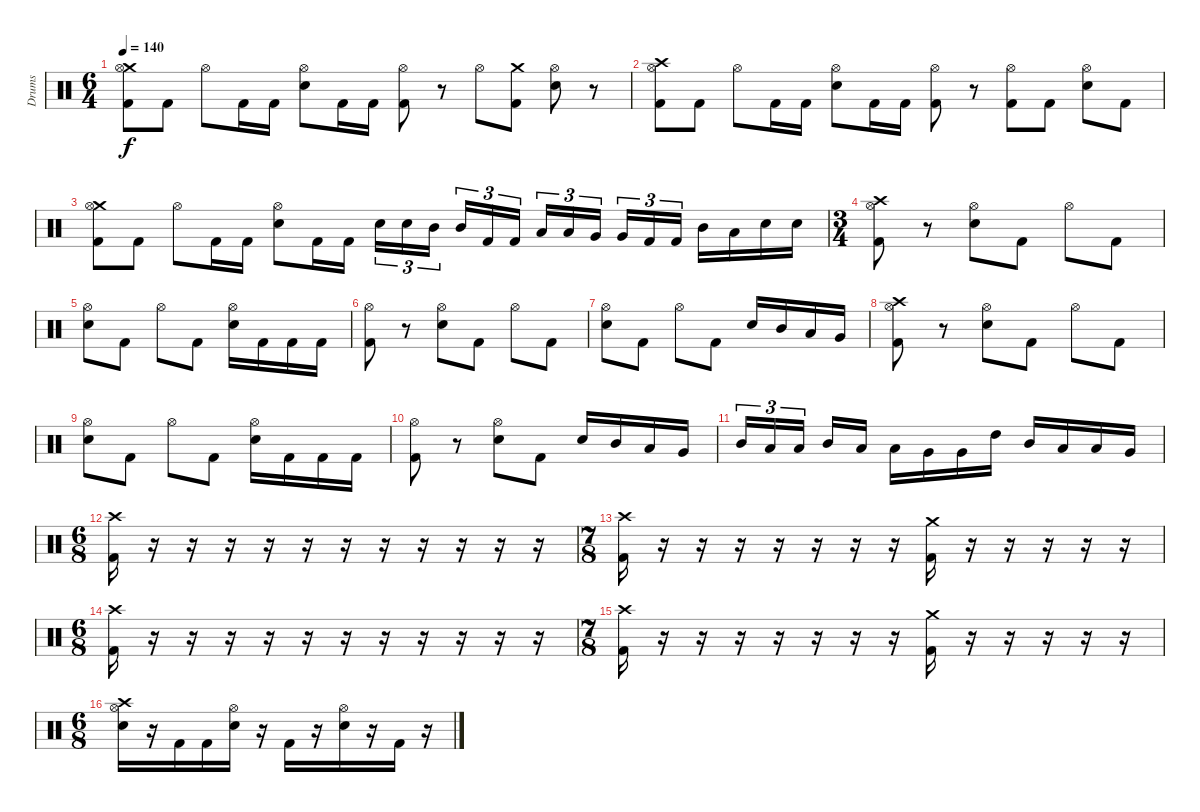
\track ("Drums" "Drums") {instrument percussion}
\staff {score}
\articulation defaults
\ts (6 4)
\tempo 140
\clef neutral
\ks c
("Crash medium (hit)" "Hi-Hat (open)" "Kick (hit) 2").8{dy f} "Kick (hit) 2".8 "Hi-Hat (open)".8 "Kick (hit) 2".16 "Kick (hit) 2".16 ("Hi-Hat (open)" "Electric Snare (hit)").8 "Kick (hit) 2".16 "Kick (hit) 2".16 ("Hi-Hat (open)" "Kick (hit) 2").8 r.8 "Hi-Hat (open)".8 ("Crash medium (hit)" "Kick (hit) 2").8 ("Hi-Hat (open)" "Electric Snare (hit)").8 r.8 |
("Crash high (hit)" "Hi-Hat (open)" "Kick (hit) 2").8 "Kick (hit) 2".8 "Hi-Hat (open)".8 "Kick (hit) 2".16 "Kick (hit) 2".16 ("Hi-Hat (open)" "Electric Snare (hit)").8 "Kick (hit) 2".16 "Kick (hit) 2".16 ("Hi-Hat (open)" "Kick (hit) 2").8 r.8 ("Hi-Hat (open)" "Kick (hit) 2").8 "Kick (hit) 2".8 ("Hi-Hat (open)" "Electric Snare (hit)").8 "Kick (hit) 2".8 |
("Crash medium (hit)" "Hi-Hat (open)" "Kick (hit) 2").8 "Kick (hit) 2".8 "Hi-Hat (open)".8 "Kick (hit) 2".16 "Kick (hit) 2".16 ("Hi-Hat (open)" "Electric Snare (hit)").8 "Kick (hit) 2".16 "Kick (hit) 2".16 "Electric Snare (hit)".16{tu (3 2)} "Electric Snare (hit)".16{tu (3 2)} "Mid Tom (hit)".16{tu (3 2)} "Mid Tom (hit)".16{tu (3 2)} "Kick (hit) 2".16{tu (3 2)} "Kick (hit) 2".16{tu (3 2)} "Low Tom (hit)".16{tu (3 2)} "Low Tom (hit)".16{tu (3 2)} "Very Low Tom (hit)".16{tu (3 2)} "Very Low Tom (hit)".16{tu (3 2)} "Kick (hit) 2".16{tu (3 2)} "Kick (hit) 2".16{tu (3 2)} "Mid Tom (hit)".16 "Low Tom (hit)".16 "Electric Snare (hit)".16 "Electric Snare (hit)".16 |
\ts (3 4)
("Crash high (hit)" "Hi-Hat (open)" "Kick (hit) 2").8 r.8 ("Hi-Hat (open)" "Electric Snare (hit)").8 "Kick (hit) 2".8 "Hi-Hat (open)".8 "Kick (hit) 2".8 |
("Hi-Hat (open)" "Electric Snare (hit)").8 "Kick (hit) 2".8 "Hi-Hat (open)".8 "Kick (hit) 2".8 ("Hi-Hat (open)" "Electric Snare (hit)").16 "Kick (hit) 2".16 "Kick (hit) 2".16 "Kick (hit) 2".16 |
("Hi-Hat (open)" "Kick (hit) 2").8 r.8 ("Hi-Hat (open)" "Electric Snare (hit)").8 "Kick (hit) 2".8 "Hi-Hat (open)".8 "Kick (hit) 2".8 |
("Hi-Hat (open)" "Electric Snare (hit)").8 "Kick (hit) 2".8 "Hi-Hat (open)".8 "Kick (hit) 2".8 "Electric Snare (hit)".16 "Mid Tom (hit)".16 "Low Tom (hit)".16 "Very Low Tom (hit)".16 |
("Crash high (hit)" "Hi-Hat (open)" "Kick (hit) 2").8 r.8 ("Hi-Hat (open)" "Electric Snare (hit)").8 "Kick (hit) 2".8 "Hi-Hat (open)".8 "Kick (hit) 2".8 |
("Hi-Hat (open)" "Electric Snare (hit)").8 "Kick (hit) 2".8 "Hi-Hat (open)".8 "Kick (hit) 2".8 ("Hi-Hat (open)" "Electric Snare (hit)").16 "Kick (hit) 2".16 "Kick (hit) 2".16 "Kick (hit) 2".16 |
("Hi-Hat (open)" "Kick (hit) 2").8 r.8 ("Hi-Hat (open)" "Electric Snare (hit)").8 "Kick (hit) 2".8 "Electric Snare (hit)".16 "Mid Tom (hit)".16 "Low Tom (hit)".16 "Very Low Tom (hit)".16 |
"Mid Tom (hit)".16{tu (3 2)} "Low Tom (hit)".16{tu (3 2)} "Low Tom (hit)".16{tu (3 2)} "Mid Tom (hit)".16 "Low Tom (hit)".16 "Low Tom (hit)".16 "Very Low Tom (hit)".16 "Very Low Tom (hit)".16 "High Tom (hit)".16 "Mid Tom (hit)".16 "Low Tom (hit)".16 "Low Tom (hit)".16 "Very Low Tom (hit)".16 |
\ts (6 8)
("Crash high (hit)" "Kick (hit) 2").16 r.16 r.16 r.16 r.16 r.16 r.16 r.16 r.16 r.16 r.16 r.16 |
\ts (7 8)
("Crash high (hit)" "Kick (hit) 2").16 r.16 r.16 r.16 r.16 r.16 r.16 r.16 ("Crash medium (hit)" "Kick (hit) 2").16 r.16 r.16 r.16 r.16 r.16 |
\ts (6 8)
("Crash high (hit)" "Kick (hit) 2").16 r.16 r.16 r.16 r.16 r.16 r.16 r.16 r.16 r.16 r.16 r.16 |
\ts (7 8)
("Crash high (hit)" "Kick (hit) 2").16 r.16 r.16 r.16 r.16 r.16 r.16 r.16 ("Crash medium (hit)" "Kick (hit) 2").16 r.16 r.16 r.16 r.16 r.16 |
\ts (6 8)
("Crash high (hit)" "Hi-Hat (open)" "Electric Snare (hit)").16 r.16 "Kick (hit) 2".16 "Kick (hit) 2".16 ("Hi-Hat (open)" "Electric Snare (hit)").16 r.16 "Kick (hit) 2".16 r.16 ("Hi-Hat (open)" "Electric Snare (hit)").16 r.16 "Kick (hit) 2".16 r.16
